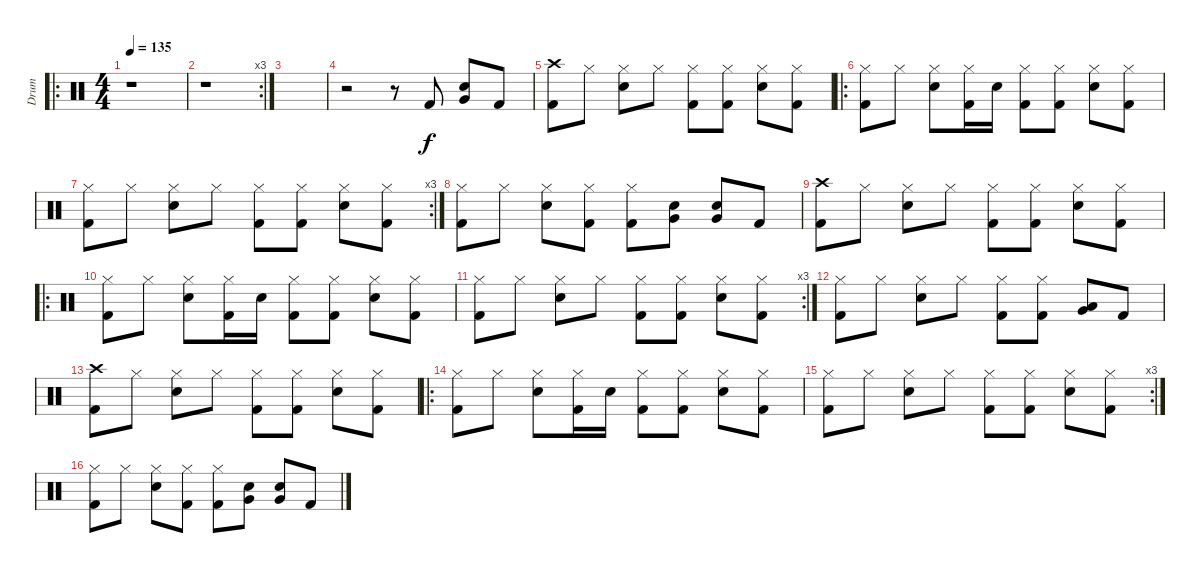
\track ("Drum" "Drum") {instrument percussion}
\staff {score}
\articulation defaults
\ro
\ts (4 4)
\tempo 135
\clef neutral
\ks c
r.1{dy f} |
\rc 3
r.1 |
|
r.2 r.8 "Kick (hit) 2".8 ("Very Low Tom (hit)" "Snare (hit) 2").8 "Kick (hit) 2".8 |
("Crash high (hit)" "Kick (hit) 2").8 "Hi-Hat (closed)".8 ("Hi-Hat (closed)" "Snare (hit) 2").8 "Hi-Hat (closed)".8 ("Hi-Hat (closed)" "Kick (hit) 2").8 ("Hi-Hat (closed)" "Kick (hit) 2").8 ("Hi-Hat (closed)" "Snare (hit) 2").8 ("Hi-Hat (closed)" "Kick (hit) 2").8 |
\ro
("Hi-Hat (closed)" "Kick (hit) 2").8 "Hi-Hat (closed)".8 ("Hi-Hat (closed)" "Snare (hit) 2").8 ("Hi-Hat (closed)" "Kick (hit) 2").16 "Snare (hit) 2".16 ("Hi-Hat (closed)" "Kick (hit) 2").8 ("Hi-Hat (closed)" "Kick (hit) 2").8 ("Hi-Hat (closed)" "Snare (hit) 2").8 ("Hi-Hat (closed)" "Kick (hit) 2").8 |
\rc 3
("Hi-Hat (closed)" "Kick (hit) 2").8 "Hi-Hat (closed)".8 ("Hi-Hat (closed)" "Snare (hit) 2").8 "Hi-Hat (closed)".8 ("Hi-Hat (closed)" "Kick (hit) 2").8 ("Hi-Hat (closed)" "Kick (hit) 2").8 ("Hi-Hat (closed)" "Snare (hit) 2").8 ("Hi-Hat (closed)" "Kick (hit) 2").8 |
("Hi-Hat (closed)" "Kick (hit) 2").8 "Hi-Hat (closed)".8 ("Hi-Hat (closed)" "Snare (hit) 2").8 ("Hi-Hat (closed)" "Kick (hit) 2").8 ("Hi-Hat (closed)" "Kick (hit) 2").8 ("Very Low Tom (hit)" "Snare (hit) 2").8 ("Very Low Tom (hit)" "Snare (hit) 2").8 "Kick (hit) 2".8 |
("Crash high (hit)" "Kick (hit) 2").8 "Hi-Hat (closed)".8 ("Hi-Hat (closed)" "Snare (hit) 2").8 "Hi-Hat (closed)".8 ("Hi-Hat (closed)" "Kick (hit) 2").8 ("Hi-Hat (closed)" "Kick (hit) 2").8 ("Hi-Hat (closed)" "Snare (hit) 2").8 ("Hi-Hat (closed)" "Kick (hit) 2").8 |
\ro
("Hi-Hat (closed)" "Kick (hit) 2").8 "Hi-Hat (closed)".8 ("Hi-Hat (closed)" "Snare (hit) 2").8 ("Hi-Hat (closed)" "Kick (hit) 2").16 "Snare (hit) 2".16 ("Hi-Hat (closed)" "Kick (hit) 2").8 ("Hi-Hat (closed)" "Kick (hit) 2").8 ("Hi-Hat (closed)" "Snare (hit) 2").8 ("Hi-Hat (closed)" "Kick (hit) 2").8 |
\rc 3
("Hi-Hat (closed)" "Kick (hit) 2").8 "Hi-Hat (closed)".8 ("Hi-Hat (closed)" "Snare (hit) 2").8 "Hi-Hat (closed)".8 ("Hi-Hat (closed)" "Kick (hit) 2").8 ("Hi-Hat (closed)" "Kick (hit) 2").8 ("Hi-Hat (closed)" "Snare (hit) 2").8 ("Hi-Hat (closed)" "Kick (hit) 2").8 |
("Hi-Hat (closed)" "Kick (hit) 2").8 "Hi-Hat (closed)".8 ("Hi-Hat (closed)" "Snare (hit) 2").8 "Hi-Hat (closed)".8 ("Hi-Hat (closed)" "Kick (hit) 2").8 ("Hi-Hat (closed)" "Kick (hit) 2").8 ("Low Tom (hit)" "Very Low Tom (hit)").8 "Kick (hit) 2".8 |
("Crash high (hit)" "Kick (hit) 2").8 "Hi-Hat (closed)".8 ("Hi-Hat (closed)" "Snare (hit) 2").8 "Hi-Hat (closed)".8 ("Hi-Hat (closed)" "Kick (hit) 2").8 ("Hi-Hat (closed)" "Kick (hit) 2").8 ("Hi-Hat (closed)" "Snare (hit) 2").8 ("Hi-Hat (closed)" "Kick (hit) 2").8 |
\ro
("Hi-Hat (closed)" "Kick (hit) 2").8 "Hi-Hat (closed)".8 ("Hi-Hat (closed)" "Snare (hit) 2").8 ("Hi-Hat (closed)" "Kick (hit) 2").16 "Snare (hit) 2".16 ("Hi-Hat (closed)" "Kick (hit) 2").8 ("Hi-Hat (closed)" "Kick (hit) 2").8 ("Hi-Hat (closed)" "Snare (hit) 2").8 ("Hi-Hat (closed)" "Kick (hit) 2").8 |
\rc 3
("Hi-Hat (closed)" "Kick (hit) 2").8 "Hi-Hat (closed)".8 ("Hi-Hat (closed)" "Snare (hit) 2").8 "Hi-Hat (closed)".8 ("Hi-Hat (closed)" "Kick (hit) 2").8 ("Hi-Hat (closed)" "Kick (hit) 2").8 ("Hi-Hat (closed)" "Snare (hit) 2").8 ("Hi-Hat (closed)" "Kick (hit) 2").8 |
("Hi-Hat (closed)" "Kick (hit) 2").8 "Hi-Hat (closed)".8 ("Hi-Hat (closed)" "Snare (hit) 2").8 ("Hi-Hat (closed)" "Kick (hit) 2").8 ("Hi-Hat (closed)" "Kick (hit) 2").8 ("Very Low Tom (hit)" "Snare (hit) 2").8 ("Very Low Tom (hit)" "Snare (hit) 2").8 "Kick (hit) 2".8
